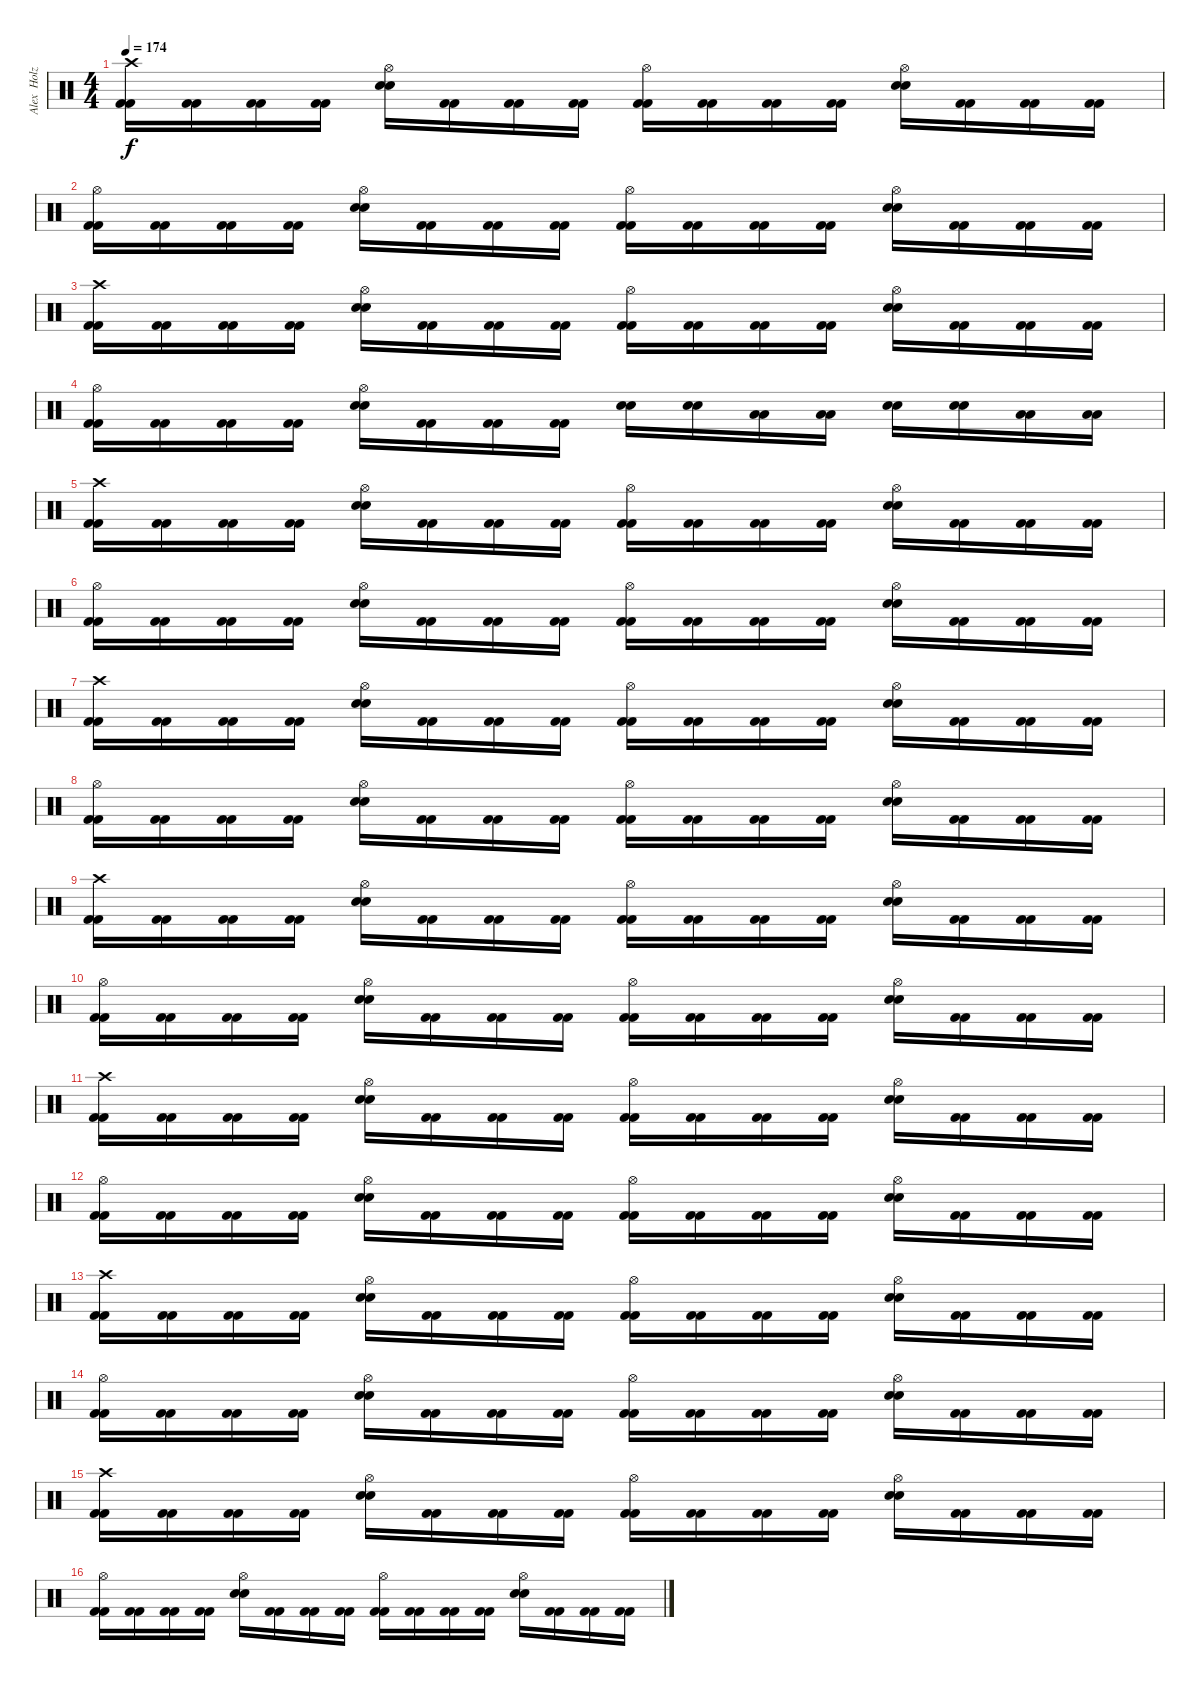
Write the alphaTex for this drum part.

\track ("Alex  Holzwarth (Drums)" "Alex  Holz") {instrument percussion}
\staff {score}
\articulation defaults
\ts (4 4)
\tempo 174
\clef neutral
\ks c
("Crash high (hit)" "Kick (hit) 2" "Kick (hit) 2").16{dy f} ("Kick (hit) 2" "Kick (hit) 2").16 ("Kick (hit) 2" "Kick (hit) 2").16 ("Kick (hit) 2" "Kick (hit) 2").16 ("Hi-Hat (open)" "Snare (hit) 2" "Snare (hit) 2").16 ("Kick (hit) 2" "Kick (hit) 2").16 ("Kick (hit) 2" "Kick (hit) 2").16 ("Kick (hit) 2" "Kick (hit) 2").16 ("Hi-Hat (open)" "Kick (hit) 2" "Kick (hit) 2").16 ("Kick (hit) 2" "Kick (hit) 2").16 ("Kick (hit) 2" "Kick (hit) 2").16 ("Kick (hit) 2" "Kick (hit) 2").16 ("Hi-Hat (open)" "Snare (hit) 2" "Snare (hit) 2").16 ("Kick (hit) 2" "Kick (hit) 2").16 ("Kick (hit) 2" "Kick (hit) 2").16 ("Kick (hit) 2" "Kick (hit) 2").16 |
("Hi-Hat (open)" "Kick (hit) 2" "Kick (hit) 2").16 ("Kick (hit) 2" "Kick (hit) 2").16 ("Kick (hit) 2" "Kick (hit) 2").16 ("Kick (hit) 2" "Kick (hit) 2").16 ("Hi-Hat (open)" "Snare (hit) 2" "Snare (hit) 2").16 ("Kick (hit) 2" "Kick (hit) 2").16 ("Kick (hit) 2" "Kick (hit) 2").16 ("Kick (hit) 2" "Kick (hit) 2").16 ("Hi-Hat (open)" "Kick (hit) 2" "Kick (hit) 2").16 ("Kick (hit) 2" "Kick (hit) 2").16 ("Kick (hit) 2" "Kick (hit) 2").16 ("Kick (hit) 2" "Kick (hit) 2").16 ("Hi-Hat (open)" "Snare (hit) 2" "Snare (hit) 2").16 ("Kick (hit) 2" "Kick (hit) 2").16 ("Kick (hit) 2" "Kick (hit) 2").16 ("Kick (hit) 2" "Kick (hit) 2").16 |
("Crash high (hit)" "Kick (hit) 2" "Kick (hit) 2").16 ("Kick (hit) 2" "Kick (hit) 2").16 ("Kick (hit) 2" "Kick (hit) 2").16 ("Kick (hit) 2" "Kick (hit) 2").16 ("Hi-Hat (open)" "Snare (hit) 2" "Snare (hit) 2").16 ("Kick (hit) 2" "Kick (hit) 2").16 ("Kick (hit) 2" "Kick (hit) 2").16 ("Kick (hit) 2" "Kick (hit) 2").16 ("Hi-Hat (open)" "Kick (hit) 2" "Kick (hit) 2").16 ("Kick (hit) 2" "Kick (hit) 2").16 ("Kick (hit) 2" "Kick (hit) 2").16 ("Kick (hit) 2" "Kick (hit) 2").16 ("Hi-Hat (open)" "Snare (hit) 2" "Snare (hit) 2").16 ("Kick (hit) 2" "Kick (hit) 2").16 ("Kick (hit) 2" "Kick (hit) 2").16 ("Kick (hit) 2" "Kick (hit) 2").16 |
("Hi-Hat (open)" "Kick (hit) 2" "Kick (hit) 2").16 ("Kick (hit) 2" "Kick (hit) 2").16 ("Kick (hit) 2" "Kick (hit) 2").16 ("Kick (hit) 2" "Kick (hit) 2").16 ("Hi-Hat (open)" "Snare (hit) 2" "Snare (hit) 2").16 ("Kick (hit) 2" "Kick (hit) 2").16 ("Kick (hit) 2" "Kick (hit) 2").16 ("Kick (hit) 2" "Kick (hit) 2").16 ("Snare (hit) 2" "Snare (hit) 2").16 ("Snare (hit) 2" "Snare (hit) 2").16 ("Low Tom (hit)" "Low Tom (hit)").16 ("Low Tom (hit)" "Low Tom (hit)").16 ("Snare (hit) 2" "Snare (hit) 2").16 ("Snare (hit) 2" "Snare (hit) 2").16 ("Low Tom (hit)" "Low Tom (hit)").16 ("Low Tom (hit)" "Low Tom (hit)").16 |
("Crash high (hit)" "Kick (hit) 2" "Kick (hit) 2").16 ("Kick (hit) 2" "Kick (hit) 2").16 ("Kick (hit) 2" "Kick (hit) 2").16 ("Kick (hit) 2" "Kick (hit) 2").16 ("Hi-Hat (open)" "Snare (hit) 2" "Snare (hit) 2").16 ("Kick (hit) 2" "Kick (hit) 2").16 ("Kick (hit) 2" "Kick (hit) 2").16 ("Kick (hit) 2" "Kick (hit) 2").16 ("Hi-Hat (open)" "Kick (hit) 2" "Kick (hit) 2").16 ("Kick (hit) 2" "Kick (hit) 2").16 ("Kick (hit) 2" "Kick (hit) 2").16 ("Kick (hit) 2" "Kick (hit) 2").16 ("Hi-Hat (open)" "Snare (hit) 2" "Snare (hit) 2").16 ("Kick (hit) 2" "Kick (hit) 2").16 ("Kick (hit) 2" "Kick (hit) 2").16 ("Kick (hit) 2" "Kick (hit) 2").16 |
("Hi-Hat (open)" "Kick (hit) 2" "Kick (hit) 2").16 ("Kick (hit) 2" "Kick (hit) 2").16 ("Kick (hit) 2" "Kick (hit) 2").16 ("Kick (hit) 2" "Kick (hit) 2").16 ("Hi-Hat (open)" "Snare (hit) 2" "Snare (hit) 2").16 ("Kick (hit) 2" "Kick (hit) 2").16 ("Kick (hit) 2" "Kick (hit) 2").16 ("Kick (hit) 2" "Kick (hit) 2").16 ("Hi-Hat (open)" "Kick (hit) 2" "Kick (hit) 2").16 ("Kick (hit) 2" "Kick (hit) 2").16 ("Kick (hit) 2" "Kick (hit) 2").16 ("Kick (hit) 2" "Kick (hit) 2").16 ("Hi-Hat (open)" "Snare (hit) 2" "Snare (hit) 2").16 ("Kick (hit) 2" "Kick (hit) 2").16 ("Kick (hit) 2" "Kick (hit) 2").16 ("Kick (hit) 2" "Kick (hit) 2").16 |
("Crash high (hit)" "Kick (hit) 2" "Kick (hit) 2").16 ("Kick (hit) 2" "Kick (hit) 2").16 ("Kick (hit) 2" "Kick (hit) 2").16 ("Kick (hit) 2" "Kick (hit) 2").16 ("Hi-Hat (open)" "Snare (hit) 2" "Snare (hit) 2").16 ("Kick (hit) 2" "Kick (hit) 2").16 ("Kick (hit) 2" "Kick (hit) 2").16 ("Kick (hit) 2" "Kick (hit) 2").16 ("Hi-Hat (open)" "Kick (hit) 2" "Kick (hit) 2").16 ("Kick (hit) 2" "Kick (hit) 2").16 ("Kick (hit) 2" "Kick (hit) 2").16 ("Kick (hit) 2" "Kick (hit) 2").16 ("Hi-Hat (open)" "Snare (hit) 2" "Snare (hit) 2").16 ("Kick (hit) 2" "Kick (hit) 2").16 ("Kick (hit) 2" "Kick (hit) 2").16 ("Kick (hit) 2" "Kick (hit) 2").16 |
("Hi-Hat (open)" "Kick (hit) 2" "Kick (hit) 2").16 ("Kick (hit) 2" "Kick (hit) 2").16 ("Kick (hit) 2" "Kick (hit) 2").16 ("Kick (hit) 2" "Kick (hit) 2").16 ("Hi-Hat (open)" "Snare (hit) 2" "Snare (hit) 2").16 ("Kick (hit) 2" "Kick (hit) 2").16 ("Kick (hit) 2" "Kick (hit) 2").16 ("Kick (hit) 2" "Kick (hit) 2").16 ("Hi-Hat (open)" "Kick (hit) 2" "Kick (hit) 2").16 ("Kick (hit) 2" "Kick (hit) 2").16 ("Kick (hit) 2" "Kick (hit) 2").16 ("Kick (hit) 2" "Kick (hit) 2").16 ("Hi-Hat (open)" "Snare (hit) 2" "Snare (hit) 2").16 ("Kick (hit) 2" "Kick (hit) 2").16 ("Kick (hit) 2" "Kick (hit) 2").16 ("Kick (hit) 2" "Kick (hit) 2").16 |
("Crash high (hit)" "Kick (hit) 2" "Kick (hit) 2").16 ("Kick (hit) 2" "Kick (hit) 2").16 ("Kick (hit) 2" "Kick (hit) 2").16 ("Kick (hit) 2" "Kick (hit) 2").16 ("Hi-Hat (open)" "Snare (hit) 2" "Snare (hit) 2").16 ("Kick (hit) 2" "Kick (hit) 2").16 ("Kick (hit) 2" "Kick (hit) 2").16 ("Kick (hit) 2" "Kick (hit) 2").16 ("Hi-Hat (open)" "Kick (hit) 2" "Kick (hit) 2").16 ("Kick (hit) 2" "Kick (hit) 2").16 ("Kick (hit) 2" "Kick (hit) 2").16 ("Kick (hit) 2" "Kick (hit) 2").16 ("Hi-Hat (open)" "Snare (hit) 2" "Snare (hit) 2").16 ("Kick (hit) 2" "Kick (hit) 2").16 ("Kick (hit) 2" "Kick (hit) 2").16 ("Kick (hit) 2" "Kick (hit) 2").16 |
("Hi-Hat (open)" "Kick (hit) 2" "Kick (hit) 2").16 ("Kick (hit) 2" "Kick (hit) 2").16 ("Kick (hit) 2" "Kick (hit) 2").16 ("Kick (hit) 2" "Kick (hit) 2").16 ("Hi-Hat (open)" "Snare (hit) 2" "Snare (hit) 2").16 ("Kick (hit) 2" "Kick (hit) 2").16 ("Kick (hit) 2" "Kick (hit) 2").16 ("Kick (hit) 2" "Kick (hit) 2").16 ("Hi-Hat (open)" "Kick (hit) 2" "Kick (hit) 2").16 ("Kick (hit) 2" "Kick (hit) 2").16 ("Kick (hit) 2" "Kick (hit) 2").16 ("Kick (hit) 2" "Kick (hit) 2").16 ("Hi-Hat (open)" "Snare (hit) 2" "Snare (hit) 2").16 ("Kick (hit) 2" "Kick (hit) 2").16 ("Kick (hit) 2" "Kick (hit) 2").16 ("Kick (hit) 2" "Kick (hit) 2").16 |
("Crash high (hit)" "Kick (hit) 2" "Kick (hit) 2").16 ("Kick (hit) 2" "Kick (hit) 2").16 ("Kick (hit) 2" "Kick (hit) 2").16 ("Kick (hit) 2" "Kick (hit) 2").16 ("Hi-Hat (open)" "Snare (hit) 2" "Snare (hit) 2").16 ("Kick (hit) 2" "Kick (hit) 2").16 ("Kick (hit) 2" "Kick (hit) 2").16 ("Kick (hit) 2" "Kick (hit) 2").16 ("Hi-Hat (open)" "Kick (hit) 2" "Kick (hit) 2").16 ("Kick (hit) 2" "Kick (hit) 2").16 ("Kick (hit) 2" "Kick (hit) 2").16 ("Kick (hit) 2" "Kick (hit) 2").16 ("Hi-Hat (open)" "Snare (hit) 2" "Snare (hit) 2").16 ("Kick (hit) 2" "Kick (hit) 2").16 ("Kick (hit) 2" "Kick (hit) 2").16 ("Kick (hit) 2" "Kick (hit) 2").16 |
("Hi-Hat (open)" "Kick (hit) 2" "Kick (hit) 2").16 ("Kick (hit) 2" "Kick (hit) 2").16 ("Kick (hit) 2" "Kick (hit) 2").16 ("Kick (hit) 2" "Kick (hit) 2").16 ("Hi-Hat (open)" "Snare (hit) 2" "Snare (hit) 2").16 ("Kick (hit) 2" "Kick (hit) 2").16 ("Kick (hit) 2" "Kick (hit) 2").16 ("Kick (hit) 2" "Kick (hit) 2").16 ("Hi-Hat (open)" "Kick (hit) 2" "Kick (hit) 2").16 ("Kick (hit) 2" "Kick (hit) 2").16 ("Kick (hit) 2" "Kick (hit) 2").16 ("Kick (hit) 2" "Kick (hit) 2").16 ("Hi-Hat (open)" "Snare (hit) 2" "Snare (hit) 2").16 ("Kick (hit) 2" "Kick (hit) 2").16 ("Kick (hit) 2" "Kick (hit) 2").16 ("Kick (hit) 2" "Kick (hit) 2").16 |
("Crash high (hit)" "Kick (hit) 2" "Kick (hit) 2").16 ("Kick (hit) 2" "Kick (hit) 2").16 ("Kick (hit) 2" "Kick (hit) 2").16 ("Kick (hit) 2" "Kick (hit) 2").16 ("Hi-Hat (open)" "Snare (hit) 2" "Snare (hit) 2").16 ("Kick (hit) 2" "Kick (hit) 2").16 ("Kick (hit) 2" "Kick (hit) 2").16 ("Kick (hit) 2" "Kick (hit) 2").16 ("Hi-Hat (open)" "Kick (hit) 2" "Kick (hit) 2").16 ("Kick (hit) 2" "Kick (hit) 2").16 ("Kick (hit) 2" "Kick (hit) 2").16 ("Kick (hit) 2" "Kick (hit) 2").16 ("Hi-Hat (open)" "Snare (hit) 2" "Snare (hit) 2").16 ("Kick (hit) 2" "Kick (hit) 2").16 ("Kick (hit) 2" "Kick (hit) 2").16 ("Kick (hit) 2" "Kick (hit) 2").16 |
("Hi-Hat (open)" "Kick (hit) 2" "Kick (hit) 2").16 ("Kick (hit) 2" "Kick (hit) 2").16 ("Kick (hit) 2" "Kick (hit) 2").16 ("Kick (hit) 2" "Kick (hit) 2").16 ("Hi-Hat (open)" "Snare (hit) 2" "Snare (hit) 2").16 ("Kick (hit) 2" "Kick (hit) 2").16 ("Kick (hit) 2" "Kick (hit) 2").16 ("Kick (hit) 2" "Kick (hit) 2").16 ("Hi-Hat (open)" "Kick (hit) 2" "Kick (hit) 2").16 ("Kick (hit) 2" "Kick (hit) 2").16 ("Kick (hit) 2" "Kick (hit) 2").16 ("Kick (hit) 2" "Kick (hit) 2").16 ("Hi-Hat (open)" "Snare (hit) 2" "Snare (hit) 2").16 ("Kick (hit) 2" "Kick (hit) 2").16 ("Kick (hit) 2" "Kick (hit) 2").16 ("Kick (hit) 2" "Kick (hit) 2").16 |
("Crash high (hit)" "Kick (hit) 2" "Kick (hit) 2").16 ("Kick (hit) 2" "Kick (hit) 2").16 ("Kick (hit) 2" "Kick (hit) 2").16 ("Kick (hit) 2" "Kick (hit) 2").16 ("Hi-Hat (open)" "Snare (hit) 2" "Snare (hit) 2").16 ("Kick (hit) 2" "Kick (hit) 2").16 ("Kick (hit) 2" "Kick (hit) 2").16 ("Kick (hit) 2" "Kick (hit) 2").16 ("Hi-Hat (open)" "Kick (hit) 2" "Kick (hit) 2").16 ("Kick (hit) 2" "Kick (hit) 2").16 ("Kick (hit) 2" "Kick (hit) 2").16 ("Kick (hit) 2" "Kick (hit) 2").16 ("Hi-Hat (open)" "Snare (hit) 2" "Snare (hit) 2").16 ("Kick (hit) 2" "Kick (hit) 2").16 ("Kick (hit) 2" "Kick (hit) 2").16 ("Kick (hit) 2" "Kick (hit) 2").16 |
("Hi-Hat (open)" "Kick (hit) 2" "Kick (hit) 2").16 ("Kick (hit) 2" "Kick (hit) 2").16 ("Kick (hit) 2" "Kick (hit) 2").16 ("Kick (hit) 2" "Kick (hit) 2").16 ("Hi-Hat (open)" "Snare (hit) 2" "Snare (hit) 2").16 ("Kick (hit) 2" "Kick (hit) 2").16 ("Kick (hit) 2" "Kick (hit) 2").16 ("Kick (hit) 2" "Kick (hit) 2").16 ("Hi-Hat (open)" "Kick (hit) 2" "Kick (hit) 2").16 ("Kick (hit) 2" "Kick (hit) 2").16 ("Kick (hit) 2" "Kick (hit) 2").16 ("Kick (hit) 2" "Kick (hit) 2").16 ("Hi-Hat (open)" "Snare (hit) 2" "Snare (hit) 2").16 ("Kick (hit) 2" "Kick (hit) 2").16 ("Kick (hit) 2" "Kick (hit) 2").16 ("Kick (hit) 2" "Kick (hit) 2").16
